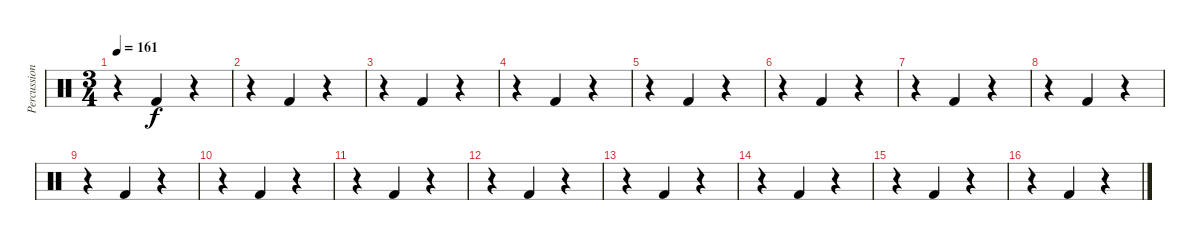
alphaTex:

\track ("Percussion" "Percussion") {mute instrument percussion}
\staff {score}
\articulation defaults
\ts (3 4)
\tempo 161
\clef neutral
\ks c
r.4{dy f} "Kick (hit) 2".4 r.4 |
r.4 "Kick (hit) 2".4 r.4 |
r.4 "Kick (hit) 2".4 r.4 |
r.4 "Kick (hit) 2".4 r.4 |
r.4 "Kick (hit) 2".4 r.4 |
r.4 "Kick (hit) 2".4 r.4 |
r.4 "Kick (hit) 2".4 r.4 |
r.4 "Kick (hit) 2".4 r.4 |
r.4 "Kick (hit) 2".4 r.4 |
r.4 "Kick (hit) 2".4 r.4 |
r.4 "Kick (hit) 2".4 r.4 |
r.4 "Kick (hit) 2".4 r.4 |
r.4 "Kick (hit) 2".4 r.4 |
r.4 "Kick (hit) 2".4 r.4 |
r.4 "Kick (hit) 2".4 r.4 |
r.4 "Kick (hit) 2".4 r.4
